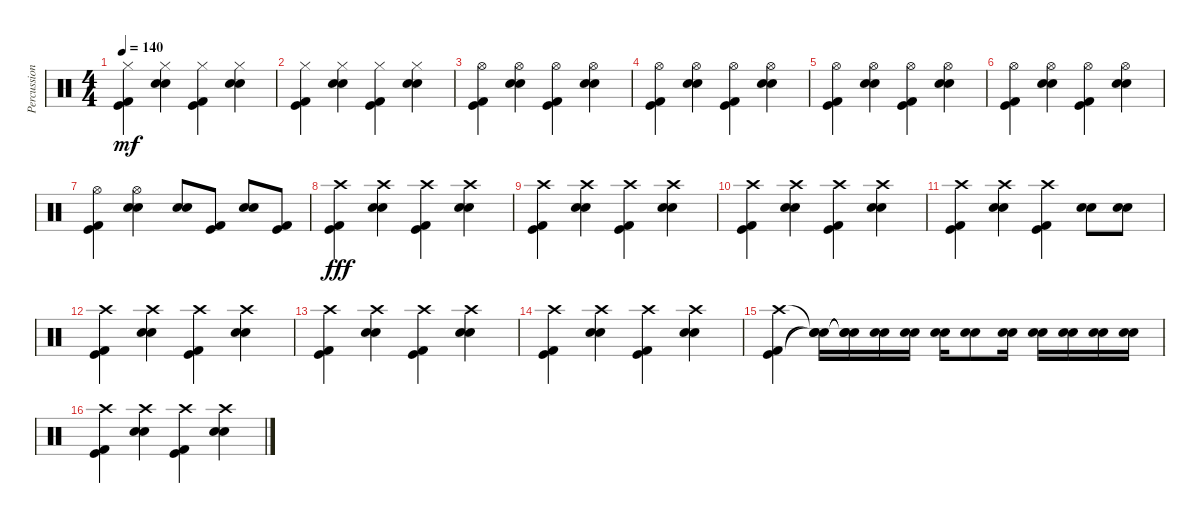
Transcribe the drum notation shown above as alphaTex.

\track ("Percussions" "Percussion") {instrument percussion}
\staff {score}
\articulation defaults
\ts (4 4)
\tempo 140
\clef neutral
\ks c
("Hi-Hat (closed)" "Kick (hit)" "Kick (hit) 2").4{dy mf} ("Hi-Hat (closed)" "Snare (hit) 2" "Electric Snare (hit)").4 ("Hi-Hat (closed)" "Kick (hit)" "Kick (hit) 2").4 ("Hi-Hat (closed)" "Snare (hit) 2" "Electric Snare (hit)").4 |
("Hi-Hat (closed)" "Kick (hit)" "Kick (hit) 2").4 ("Hi-Hat (closed)" "Snare (hit) 2" "Electric Snare (hit)").4 ("Hi-Hat (closed)" "Kick (hit)" "Kick (hit) 2").4 ("Hi-Hat (closed)" "Snare (hit) 2" "Electric Snare (hit)").4 |
("Hi-Hat (open)" "Kick (hit)" "Kick (hit) 2").4 ("Hi-Hat (open)" "Snare (hit) 2" "Electric Snare (hit)").4 ("Hi-Hat (open)" "Kick (hit)" "Kick (hit) 2").4 ("Hi-Hat (open)" "Snare (hit) 2" "Electric Snare (hit)").4 |
("Hi-Hat (open)" "Kick (hit)" "Kick (hit) 2").4 ("Hi-Hat (open)" "Snare (hit) 2" "Electric Snare (hit)").4 ("Hi-Hat (open)" "Kick (hit)" "Kick (hit) 2").4 ("Hi-Hat (open)" "Snare (hit) 2" "Electric Snare (hit)").4 |
("Hi-Hat (open)" "Kick (hit)" "Kick (hit) 2").4 ("Hi-Hat (open)" "Snare (hit) 2" "Electric Snare (hit)").4 ("Hi-Hat (open)" "Kick (hit)" "Kick (hit) 2").4 ("Hi-Hat (open)" "Snare (hit) 2" "Electric Snare (hit)").4 |
("Hi-Hat (open)" "Kick (hit)" "Kick (hit) 2").4 ("Hi-Hat (open)" "Snare (hit) 2" "Electric Snare (hit)").4 ("Hi-Hat (open)" "Kick (hit)" "Kick (hit) 2").4 ("Hi-Hat (open)" "Snare (hit) 2" "Electric Snare (hit)").4 |
("Hi-Hat (open)" "Kick (hit)" "Kick (hit) 2").4 ("Hi-Hat (open)" "Snare (hit) 2" "Electric Snare (hit)").4 ("Snare (hit) 2" "Electric Snare (hit)").8 ("Kick (hit)" "Kick (hit) 2").8 ("Snare (hit) 2" "Electric Snare (hit)").8 ("Kick (hit)" "Kick (hit) 2").8 |
("Crash high (hit)" "Kick (hit)" "Kick (hit) 2").4{dy fff} ("Crash high (hit)" "Snare (hit) 2" "Electric Snare (hit)").4 ("Crash high (hit)" "Kick (hit)" "Kick (hit) 2").4 ("Crash high (hit)" "Snare (hit) 2" "Electric Snare (hit)").4 |
("Crash high (hit)" "Kick (hit)" "Kick (hit) 2").4 ("Crash high (hit)" "Snare (hit) 2" "Electric Snare (hit)").4 ("Crash high (hit)" "Kick (hit)" "Kick (hit) 2").4 ("Crash high (hit)" "Snare (hit) 2" "Electric Snare (hit)").4 |
("Crash high (hit)" "Kick (hit)" "Kick (hit) 2").4 ("Crash high (hit)" "Snare (hit) 2" "Electric Snare (hit)").4 ("Crash high (hit)" "Kick (hit)" "Kick (hit) 2").4 ("Crash high (hit)" "Snare (hit) 2" "Electric Snare (hit)").4 |
("Crash high (hit)" "Kick (hit)" "Kick (hit) 2").4 ("Crash high (hit)" "Snare (hit) 2" "Electric Snare (hit)").4 ("Crash high (hit)" "Kick (hit)" "Kick (hit) 2").4 ("Snare (hit) 2" "Electric Snare (hit)").8 ("Snare (hit) 2" "Electric Snare (hit)").8 |
("Crash high (hit)" "Kick (hit)" "Kick (hit) 2").4 ("Crash high (hit)" "Snare (hit) 2" "Electric Snare (hit)").4 ("Crash high (hit)" "Kick (hit)" "Kick (hit) 2").4 ("Crash high (hit)" "Snare (hit) 2" "Electric Snare (hit)").4 |
("Crash high (hit)" "Kick (hit)" "Kick (hit) 2").4 ("Crash high (hit)" "Snare (hit) 2" "Electric Snare (hit)").4 ("Crash high (hit)" "Kick (hit)" "Kick (hit) 2").4 ("Crash high (hit)" "Snare (hit) 2" "Electric Snare (hit)").4 |
("Crash high (hit)" "Kick (hit)" "Kick (hit) 2").4 ("Crash high (hit)" "Snare (hit) 2" "Electric Snare (hit)").4 ("Crash high (hit)" "Kick (hit)" "Kick (hit) 2").4 ("Crash high (hit)" "Snare (hit) 2" "Electric Snare (hit)").4 |
("Crash high (hit)" "Kick (hit) 2" "Kick (hit)").4 ("Snare (hit)"{t} "Electric Snare (hit)"{t} "Snare (hit) 2"{t}).16 ("Snare (hit)"{t} "Electric Snare (hit)"{t} "Snare (hit) 2"{t}).16 ("Electric Snare (hit)" "Snare (hit) 2").16 ("Electric Snare (hit)" "Snare (hit) 2").16 ("Electric Snare (hit)" "Snare (hit) 2").16 ("Electric Snare (hit)" "Snare (hit) 2").8 ("Electric Snare (hit)" "Snare (hit) 2").16 ("Electric Snare (hit)" "Snare (hit) 2").16 ("Electric Snare (hit)" "Snare (hit) 2").16 ("Electric Snare (hit)" "Snare (hit) 2").16 ("Electric Snare (hit)" "Snare (hit) 2").16 |
("Crash high (hit)" "Kick (hit)" "Kick (hit) 2").4 ("Crash high (hit)" "Snare (hit) 2" "Electric Snare (hit)").4 ("Crash high (hit)" "Kick (hit)" "Kick (hit) 2").4 ("Crash high (hit)" "Snare (hit) 2" "Electric Snare (hit)").4
